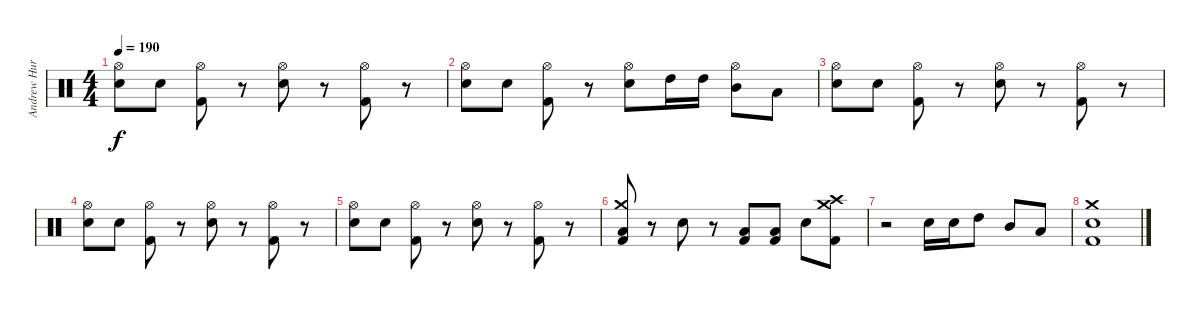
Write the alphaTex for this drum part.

\track ("Andrew Hurley (Drums)" "Andrew Hur") {instrument percussion}
\staff {score}
\articulation defaults
\ts (4 4)
\tempo 190
\clef neutral
\ks c
("Hi-Hat (open)" "Electric Snare (hit)").8{dy f} "Electric Snare (hit)".8 ("Hi-Hat (open)" "Kick (hit) 2").8 r.8 ("Hi-Hat (open)" "Electric Snare (hit)").8 r.8 ("Hi-Hat (open)" "Kick (hit) 2").8 r.8 |
("Hi-Hat (open)" "Electric Snare (hit)").8 "Electric Snare (hit)".8 ("Hi-Hat (open)" "Kick (hit) 2").8 r.8 ("Hi-Hat (open)" "Electric Snare (hit)").8 "High Tom (hit)".16 "High Tom (hit)".16 ("Hi-Hat (open)" "Mid Tom (hit)").8 "Low Tom (hit)".8 |
("Hi-Hat (open)" "Electric Snare (hit)").8 "Electric Snare (hit)".8 ("Hi-Hat (open)" "Kick (hit) 2").8 r.8 ("Hi-Hat (open)" "Electric Snare (hit)").8 r.8 ("Hi-Hat (open)" "Kick (hit) 2").8 r.8 |
("Hi-Hat (open)" "Electric Snare (hit)").8 "Electric Snare (hit)".8 ("Hi-Hat (open)" "Kick (hit) 2").8 r.8 ("Hi-Hat (open)" "Electric Snare (hit)").8 r.8 ("Hi-Hat (open)" "Kick (hit) 2").8 r.8 |
("Hi-Hat (open)" "Electric Snare (hit)").8 "Electric Snare (hit)".8 ("Hi-Hat (open)" "Kick (hit) 2").8 r.8 ("Hi-Hat (open)" "Electric Snare (hit)").8 r.8 ("Hi-Hat (open)" "Kick (hit) 2").8 r.8 |
("Crash medium (hit)" "Kick (hit) 2" "Low Floor Tom (hit)").8 r.8 "Electric Snare (hit)".8 r.8 ("Kick (hit) 2" "Low Floor Tom (hit)").8 ("Kick (hit) 2" "Low Floor Tom (hit)").8 "Electric Snare (hit)".8 ("Crash medium (hit)" "Crash high (hit)" "Kick (hit) 2").8 |
r.2 "Electric Snare (hit)".16 "Electric Snare (hit)".16 "High Tom (hit)".8 "Mid Tom (hit)".8 "Low Tom (hit)".8 |
("Crash medium (hit)" "Electric Snare (hit)" "Kick (hit) 2").1
